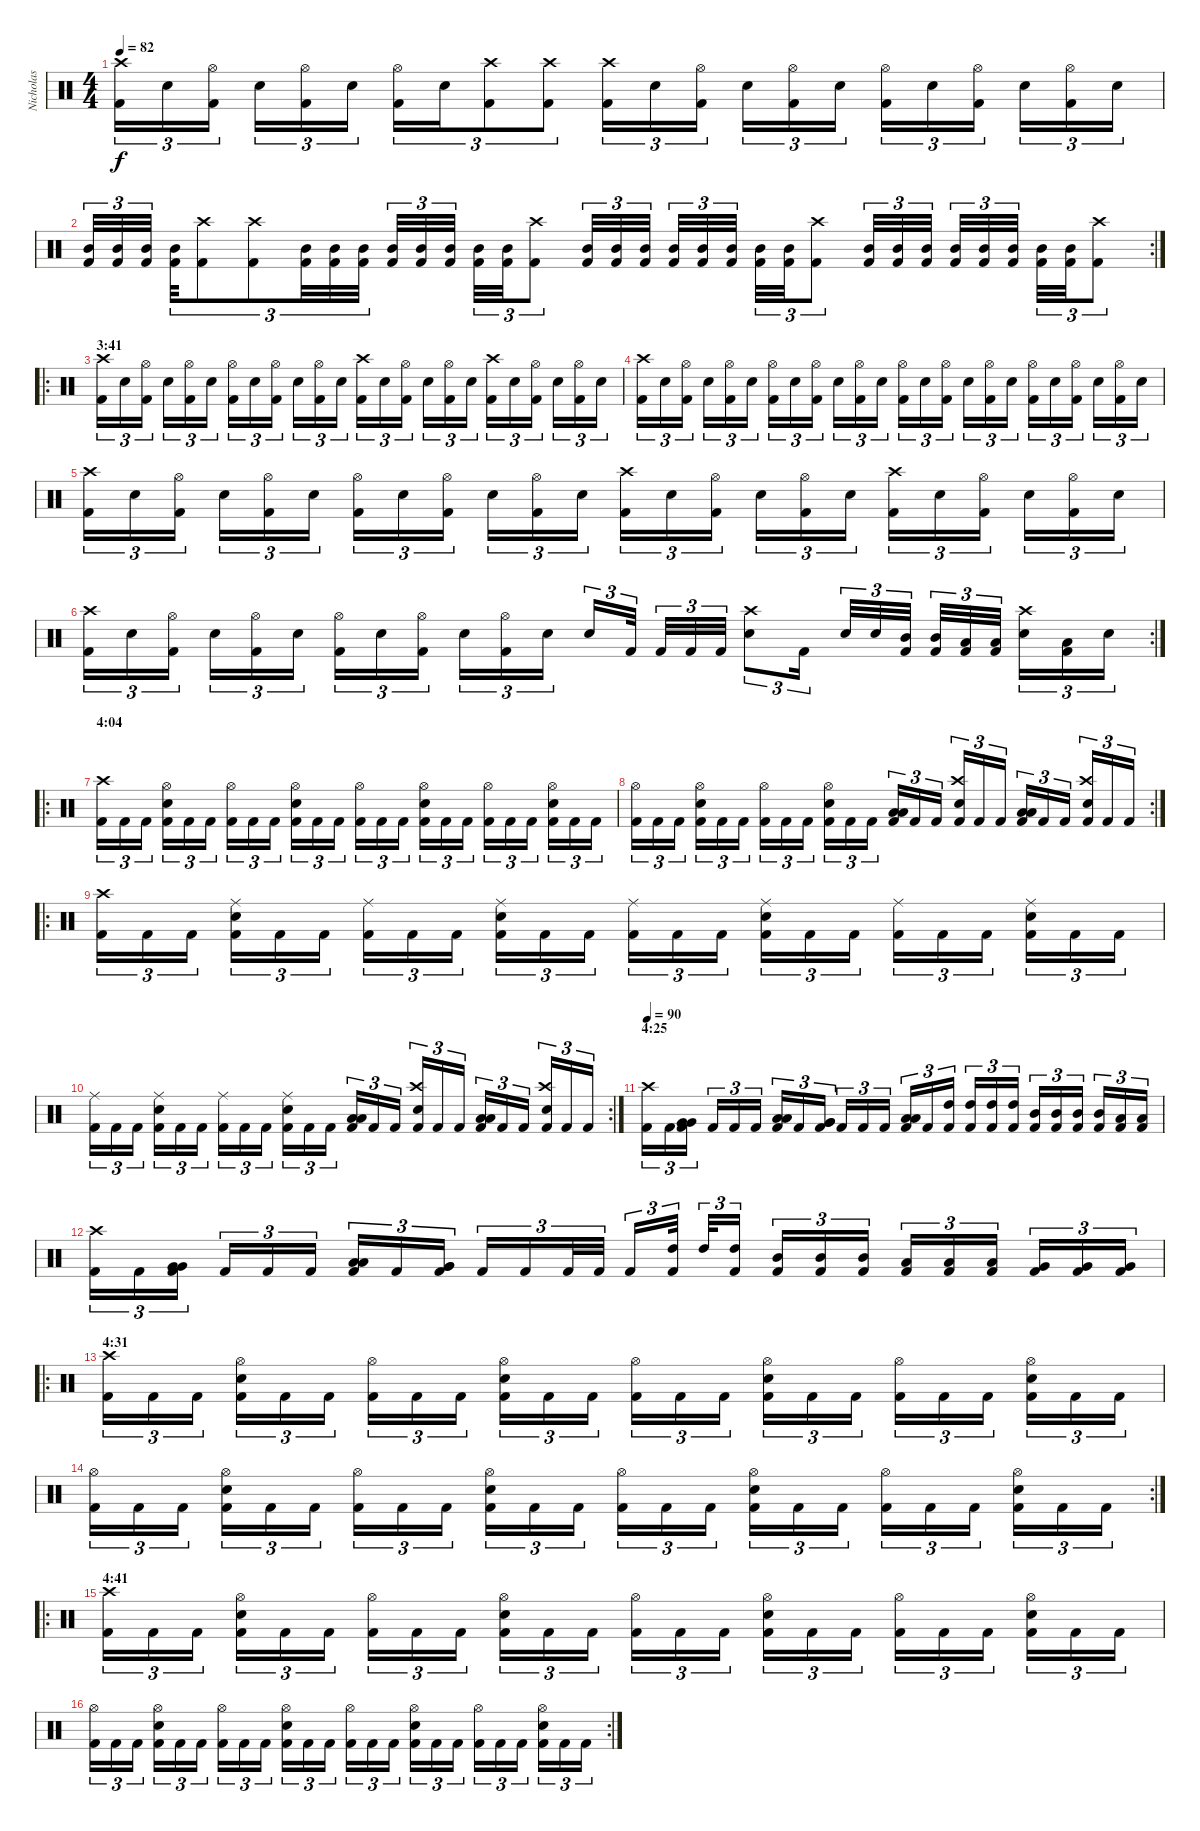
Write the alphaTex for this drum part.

\track ("Nicholas" "Nicholas") {instrument percussion}
\staff {score}
\articulation defaults
\ts (4 4)
\tempo 82
\clef neutral
\ks c
("Kick (hit) 2" "Crash high (hit)").16{tu (3 2) dy f} "Snare (hit) 2".16{tu (3 2)} ("Kick (hit) 2" "Hi-Hat (open)").16{tu (3 2)} "Snare (hit) 2".16{tu (3 2)} ("Kick (hit) 2" "Hi-Hat (open)").16{tu (3 2)} "Snare (hit) 2".16{tu (3 2)} ("Kick (hit) 2" "Hi-Hat (open)").16{tu (3 2)} "Snare (hit) 2".16{tu (3 2)} ("Kick (hit) 2" "Crash high (hit)").8{tu (3 2)} ("Kick (hit) 2" "Crash high (hit)").8{tu (3 2)} ("Kick (hit) 2" "Crash high (hit)").16{tu (3 2)} "Snare (hit) 2".16{tu (3 2)} ("Kick (hit) 2" "Hi-Hat (open)").16{tu (3 2)} "Snare (hit) 2".16{tu (3 2)} ("Kick (hit) 2" "Hi-Hat (open)").16{tu (3 2)} "Snare (hit) 2".16{tu (3 2)} ("Kick (hit) 2" "Hi-Hat (open)").16{tu (3 2)} "Snare (hit) 2".16{tu (3 2)} ("Kick (hit) 2" "Hi-Hat (open)").16{tu (3 2)} "Snare (hit) 2".16{tu (3 2)} ("Kick (hit) 2" "Hi-Hat (open)").16{tu (3 2)} "Snare (hit) 2".16{tu (3 2)} |
\rc 2
("Kick (hit) 2" "Mid Tom (hit)").32{tu (3 2)} ("Kick (hit) 2" "Mid Tom (hit)").32{tu (3 2)} ("Kick (hit) 2" "Mid Tom (hit)").32{tu (3 2)} ("Kick (hit) 2" "Mid Tom (hit)").32{tu (3 2)} ("Kick (hit) 2" "Crash high (hit)").8{tu (3 2)} ("Kick (hit) 2" "Crash high (hit)").8{tu (3 2)} ("Kick (hit) 2" "Mid Tom (hit)").32{tu (3 2)} ("Kick (hit) 2" "Mid Tom (hit)").32{tu (3 2)} ("Kick (hit) 2" "Mid Tom (hit)").32{tu (3 2)} ("Kick (hit) 2" "Mid Tom (hit)").32{tu (3 2)} ("Kick (hit) 2" "Mid Tom (hit)").32{tu (3 2)} ("Kick (hit) 2" "Mid Tom (hit)").32{tu (3 2)} ("Kick (hit) 2" "Mid Tom (hit)").32{tu (3 2)} ("Kick (hit) 2" "Mid Tom (hit)").32{tu (3 2)} ("Kick (hit) 2" "Crash high (hit)").8{tu (3 2)} ("Kick (hit) 2" "Mid Tom (hit)").32{tu (3 2)} ("Kick (hit) 2" "Mid Tom (hit)").32{tu (3 2)} ("Kick (hit) 2" "Mid Tom (hit)").32{tu (3 2)} ("Kick (hit) 2" "Mid Tom (hit)").32{tu (3 2)} ("Kick (hit) 2" "Mid Tom (hit)").32{tu (3 2)} ("Kick (hit) 2" "Mid Tom (hit)").32{tu (3 2)} ("Kick (hit) 2" "Mid Tom (hit)").32{tu (3 2)} ("Kick (hit) 2" "Mid Tom (hit)").32{tu (3 2)} ("Kick (hit) 2" "Crash high (hit)").8{tu (3 2)} ("Kick (hit) 2" "Mid Tom (hit)").32{tu (3 2)} ("Kick (hit) 2" "Mid Tom (hit)").32{tu (3 2)} ("Kick (hit) 2" "Mid Tom (hit)").32{tu (3 2)} ("Kick (hit) 2" "Mid Tom (hit)").32{tu (3 2)} ("Kick (hit) 2" "Mid Tom (hit)").32{tu (3 2)} ("Kick (hit) 2" "Mid Tom (hit)").32{tu (3 2)} ("Kick (hit) 2" "Mid Tom (hit)").32{tu (3 2)} ("Kick (hit) 2" "Mid Tom (hit)").32{tu (3 2)} ("Kick (hit) 2" "Crash high (hit)").8{tu (3 2)} |
\ro
\section ("" "3:41")
("Kick (hit) 2" "Crash high (hit)").16{tu (3 2)} "Snare (hit) 2".16{tu (3 2)} ("Kick (hit) 2" "Hi-Hat (open)").16{tu (3 2)} "Snare (hit) 2".16{tu (3 2)} ("Kick (hit) 2" "Hi-Hat (open)").16{tu (3 2)} "Snare (hit) 2".16{tu (3 2)} ("Kick (hit) 2" "Hi-Hat (open)").16{tu (3 2)} "Snare (hit) 2".16{tu (3 2)} ("Kick (hit) 2" "Hi-Hat (open)").16{tu (3 2)} "Snare (hit) 2".16{tu (3 2)} ("Kick (hit) 2" "Hi-Hat (open)").16{tu (3 2)} "Snare (hit) 2".16{tu (3 2)} ("Kick (hit) 2" "Crash high (hit)").16{tu (3 2)} "Snare (hit) 2".16{tu (3 2)} ("Kick (hit) 2" "Hi-Hat (open)").16{tu (3 2)} "Snare (hit) 2".16{tu (3 2)} ("Kick (hit) 2" "Hi-Hat (open)").16{tu (3 2)} "Snare (hit) 2".16{tu (3 2)} ("Kick (hit) 2" "Crash high (hit)").16{tu (3 2)} "Snare (hit) 2".16{tu (3 2)} ("Kick (hit) 2" "Hi-Hat (open)").16{tu (3 2)} "Snare (hit) 2".16{tu (3 2)} ("Kick (hit) 2" "Hi-Hat (open)").16{tu (3 2)} "Snare (hit) 2".16{tu (3 2)} |
("Kick (hit) 2" "Crash high (hit)").16{tu (3 2)} "Snare (hit) 2".16{tu (3 2)} ("Kick (hit) 2" "Hi-Hat (open)").16{tu (3 2)} "Snare (hit) 2".16{tu (3 2)} ("Kick (hit) 2" "Hi-Hat (open)").16{tu (3 2)} "Snare (hit) 2".16{tu (3 2)} ("Kick (hit) 2" "Hi-Hat (open)").16{tu (3 2)} "Snare (hit) 2".16{tu (3 2)} ("Kick (hit) 2" "Hi-Hat (open)").16{tu (3 2)} "Snare (hit) 2".16{tu (3 2)} ("Kick (hit) 2" "Hi-Hat (open)").16{tu (3 2)} "Snare (hit) 2".16{tu (3 2)} ("Kick (hit) 2" "Hi-Hat (open)").16{tu (3 2)} "Snare (hit) 2".16{tu (3 2)} ("Kick (hit) 2" "Hi-Hat (open)").16{tu (3 2)} "Snare (hit) 2".16{tu (3 2)} ("Kick (hit) 2" "Hi-Hat (open)").16{tu (3 2)} "Snare (hit) 2".16{tu (3 2)} ("Kick (hit) 2" "Hi-Hat (open)").16{tu (3 2)} "Snare (hit) 2".16{tu (3 2)} ("Kick (hit) 2" "Hi-Hat (open)").16{tu (3 2)} "Snare (hit) 2".16{tu (3 2)} ("Kick (hit) 2" "Hi-Hat (open)").16{tu (3 2)} "Snare (hit) 2".16{tu (3 2)} |
("Kick (hit) 2" "Crash high (hit)").16{tu (3 2)} "Snare (hit) 2".16{tu (3 2)} ("Kick (hit) 2" "Hi-Hat (open)").16{tu (3 2)} "Snare (hit) 2".16{tu (3 2)} ("Kick (hit) 2" "Hi-Hat (open)").16{tu (3 2)} "Snare (hit) 2".16{tu (3 2)} ("Kick (hit) 2" "Hi-Hat (open)").16{tu (3 2)} "Snare (hit) 2".16{tu (3 2)} ("Kick (hit) 2" "Hi-Hat (open)").16{tu (3 2)} "Snare (hit) 2".16{tu (3 2)} ("Kick (hit) 2" "Hi-Hat (open)").16{tu (3 2)} "Snare (hit) 2".16{tu (3 2)} ("Kick (hit) 2" "Crash high (hit)").16{tu (3 2)} "Snare (hit) 2".16{tu (3 2)} ("Kick (hit) 2" "Hi-Hat (open)").16{tu (3 2)} "Snare (hit) 2".16{tu (3 2)} ("Kick (hit) 2" "Hi-Hat (open)").16{tu (3 2)} "Snare (hit) 2".16{tu (3 2)} ("Kick (hit) 2" "Crash high (hit)").16{tu (3 2)} "Snare (hit) 2".16{tu (3 2)} ("Kick (hit) 2" "Hi-Hat (open)").16{tu (3 2)} "Snare (hit) 2".16{tu (3 2)} ("Kick (hit) 2" "Hi-Hat (open)").16{tu (3 2)} "Snare (hit) 2".16{tu (3 2)} |
\rc 2
("Kick (hit) 2" "Crash high (hit)").16{tu (3 2)} "Snare (hit) 2".16{tu (3 2)} ("Kick (hit) 2" "Hi-Hat (open)").16{tu (3 2)} "Snare (hit) 2".16{tu (3 2)} ("Kick (hit) 2" "Hi-Hat (open)").16{tu (3 2)} "Snare (hit) 2".16{tu (3 2)} ("Kick (hit) 2" "Hi-Hat (open)").16{tu (3 2)} "Snare (hit) 2".16{tu (3 2)} ("Kick (hit) 2" "Hi-Hat (open)").16{tu (3 2)} "Snare (hit) 2".16{tu (3 2)} ("Kick (hit) 2" "Hi-Hat (open)").16{tu (3 2)} "Snare (hit) 2".16{tu (3 2)} "Snare (hit) 2".16{tu (3 2)} "Kick (hit) 2".32{tu (3 2)} "Kick (hit) 2".32{tu (3 2)} "Kick (hit) 2".32{tu (3 2)} "Kick (hit) 2".32{tu (3 2)} ("Snare (hit) 2" "Crash high (hit)").8{tu (3 2)} "Kick (hit) 2".16{tu (3 2)} "Snare (hit) 2".32{tu (3 2)} "Snare (hit) 2".32{tu (3 2)} ("Kick (hit) 2" "Mid Tom (hit)").32{tu (3 2)} ("Kick (hit) 2" "Mid Tom (hit)").32{tu (3 2)} ("Kick (hit) 2" "Low Tom (hit)").32{tu (3 2)} ("Kick (hit) 2" "Low Tom (hit)").32{tu (3 2)} ("Snare (hit) 2" "Crash high (hit)").16{tu (3 2)} ("Kick (hit) 2" "Low Tom (hit)").16{tu (3 2)} "Snare (hit) 2".16{tu (3 2)} |
\ro
\section ("" "4:04")
("Kick (hit) 2" "Crash high (hit)").16{tu (3 2)} "Kick (hit) 2".16{tu (3 2)} "Kick (hit) 2".16{tu (3 2)} ("Kick (hit) 2" "Snare (hit) 2" "Hi-Hat (open)").16{tu (3 2)} "Kick (hit) 2".16{tu (3 2)} "Kick (hit) 2".16{tu (3 2)} ("Kick (hit) 2" "Hi-Hat (open)").16{tu (3 2)} "Kick (hit) 2".16{tu (3 2)} "Kick (hit) 2".16{tu (3 2)} ("Kick (hit) 2" "Snare (hit) 2" "Hi-Hat (open)").16{tu (3 2)} "Kick (hit) 2".16{tu (3 2)} "Kick (hit) 2".16{tu (3 2)} ("Kick (hit) 2" "Hi-Hat (open)").16{tu (3 2)} "Kick (hit) 2".16{tu (3 2)} "Kick (hit) 2".16{tu (3 2)} ("Kick (hit) 2" "Snare (hit) 2" "Hi-Hat (open)").16{tu (3 2)} "Kick (hit) 2".16{tu (3 2)} "Kick (hit) 2".16{tu (3 2)} ("Kick (hit) 2" "Hi-Hat (open)").16{tu (3 2)} "Kick (hit) 2".16{tu (3 2)} "Kick (hit) 2".16{tu (3 2)} ("Kick (hit) 2" "Snare (hit) 2" "Hi-Hat (open)").16{tu (3 2)} "Kick (hit) 2".16{tu (3 2)} "Kick (hit) 2".16{tu (3 2)} |
\rc 2
("Kick (hit) 2" "Hi-Hat (open)").16{tu (3 2)} "Kick (hit) 2".16{tu (3 2)} "Kick (hit) 2".16{tu (3 2)} ("Kick (hit) 2" "Snare (hit) 2" "Hi-Hat (open)").16{tu (3 2)} "Kick (hit) 2".16{tu (3 2)} "Kick (hit) 2".16{tu (3 2)} ("Kick (hit) 2" "Hi-Hat (open)").16{tu (3 2)} "Kick (hit) 2".16{tu (3 2)} "Kick (hit) 2".16{tu (3 2)} ("Kick (hit) 2" "Snare (hit) 2" "Hi-Hat (open)").16{tu (3 2)} "Kick (hit) 2".16{tu (3 2)} "Kick (hit) 2".16{tu (3 2)} ("Kick (hit) 2" "Low Tom (hit)" "Low Tom (hit)").16{tu (3 2)} "Kick (hit) 2".16{tu (3 2)} "Kick (hit) 2".16{tu (3 2)} ("Kick (hit) 2" "Snare (hit) 2" "Crash high (hit)").16{tu (3 2)} "Kick (hit) 2".16{tu (3 2)} "Kick (hit) 2".16{tu (3 2)} ("Kick (hit) 2" "Low Tom (hit)" "Low Tom (hit)").16{tu (3 2)} "Kick (hit) 2".16{tu (3 2)} "Kick (hit) 2".16{tu (3 2)} ("Kick (hit) 2" "Snare (hit) 2" "Crash high (hit)").16{tu (3 2)} "Kick (hit) 2".16{tu (3 2)} "Kick (hit) 2".16{tu (3 2)} |
\ro
("Kick (hit) 2" "Crash high (hit)").16{tu (3 2)} "Kick (hit) 2".16{tu (3 2)} "Kick (hit) 2".16{tu (3 2)} ("Kick (hit) 2" "Snare (hit) 2" "Ride (middle)").16{tu (3 2)} "Kick (hit) 2".16{tu (3 2)} "Kick (hit) 2".16{tu (3 2)} ("Kick (hit) 2" "Ride (middle)").16{tu (3 2)} "Kick (hit) 2".16{tu (3 2)} "Kick (hit) 2".16{tu (3 2)} ("Kick (hit) 2" "Snare (hit) 2" "Ride (middle)").16{tu (3 2)} "Kick (hit) 2".16{tu (3 2)} "Kick (hit) 2".16{tu (3 2)} ("Kick (hit) 2" "Ride (middle)").16{tu (3 2)} "Kick (hit) 2".16{tu (3 2)} "Kick (hit) 2".16{tu (3 2)} ("Kick (hit) 2" "Snare (hit) 2" "Ride (middle)").16{tu (3 2)} "Kick (hit) 2".16{tu (3 2)} "Kick (hit) 2".16{tu (3 2)} ("Kick (hit) 2" "Ride (middle)").16{tu (3 2)} "Kick (hit) 2".16{tu (3 2)} "Kick (hit) 2".16{tu (3 2)} ("Kick (hit) 2" "Snare (hit) 2" "Ride (middle)").16{tu (3 2)} "Kick (hit) 2".16{tu (3 2)} "Kick (hit) 2".16{tu (3 2)} |
\rc 2
("Kick (hit) 2" "Ride (middle)").16{tu (3 2)} "Kick (hit) 2".16{tu (3 2)} "Kick (hit) 2".16{tu (3 2)} ("Kick (hit) 2" "Snare (hit) 2" "Ride (middle)").16{tu (3 2)} "Kick (hit) 2".16{tu (3 2)} "Kick (hit) 2".16{tu (3 2)} ("Kick (hit) 2" "Ride (middle)").16{tu (3 2)} "Kick (hit) 2".16{tu (3 2)} "Kick (hit) 2".16{tu (3 2)} ("Kick (hit) 2" "Snare (hit) 2" "Ride (middle)").16{tu (3 2)} "Kick (hit) 2".16{tu (3 2)} "Kick (hit) 2".16{tu (3 2)} ("Kick (hit) 2" "Low Tom (hit)" "Low Tom (hit)").16{tu (3 2)} "Kick (hit) 2".16{tu (3 2)} "Kick (hit) 2".16{tu (3 2)} ("Kick (hit) 2" "Snare (hit) 2" "Crash high (hit)").16{tu (3 2)} "Kick (hit) 2".16{tu (3 2)} "Kick (hit) 2".16{tu (3 2)} ("Kick (hit) 2" "Low Tom (hit)" "Low Tom (hit)").16{tu (3 2)} "Kick (hit) 2".16{tu (3 2)} "Kick (hit) 2".16{tu (3 2)} ("Kick (hit) 2" "Snare (hit) 2" "Crash high (hit)").16{tu (3 2)} "Kick (hit) 2".16{tu (3 2)} "Kick (hit) 2".16{tu (3 2)} |
\section ("" "4:25")
\tempo 90
("Kick (hit) 2" "Crash high (hit)").16{tu (3 2)} "Kick (hit) 2".16{tu (3 2)} ("Kick (hit) 2" "Very Low Tom (hit)" "Very Low Tom (hit)").16{tu (3 2)} "Kick (hit) 2".16{tu (3 2)} "Kick (hit) 2".16{tu (3 2)} "Kick (hit) 2".16{tu (3 2)} ("Kick (hit) 2" "Low Tom (hit)" "Low Tom (hit)").16{tu (3 2)} "Kick (hit) 2".16{tu (3 2)} ("Kick (hit) 2" "Very Low Tom (hit)" "Very Low Tom (hit)").16{tu (3 2)} "Kick (hit) 2".16{tu (3 2)} "Kick (hit) 2".16{tu (3 2)} "Kick (hit) 2".16{tu (3 2)} ("Kick (hit) 2" "Low Tom (hit)" "Low Tom (hit)").16{tu (3 2)} "Kick (hit) 2".16{tu (3 2)} ("Kick (hit) 2" "High Tom (hit)").16{tu (3 2)} ("Kick (hit) 2" "High Tom (hit)").16{tu (3 2)} ("Kick (hit) 2" "High Tom (hit)").16{tu (3 2)} ("Kick (hit) 2" "High Tom (hit)").16{tu (3 2)} ("Kick (hit) 2" "Mid Tom (hit)").16{tu (3 2)} ("Kick (hit) 2" "Mid Tom (hit)").16{tu (3 2)} ("Kick (hit) 2" "Mid Tom (hit)").16{tu (3 2)} ("Kick (hit) 2" "Mid Tom (hit)").16{tu (3 2)} ("Kick (hit) 2" "Low Tom (hit)").16{tu (3 2)} ("Kick (hit) 2" "Low Tom (hit)").16{tu (3 2)} |
("Kick (hit) 2" "Crash high (hit)").16{tu (3 2)} "Kick (hit) 2".16{tu (3 2)} ("Kick (hit) 2" "Very Low Tom (hit)" "Very Low Tom (hit)").16{tu (3 2)} "Kick (hit) 2".16{tu (3 2)} "Kick (hit) 2".16{tu (3 2)} "Kick (hit) 2".16{tu (3 2)} ("Kick (hit) 2" "Low Tom (hit)" "Low Tom (hit)").16{tu (3 2)} "Kick (hit) 2".16{tu (3 2)} ("Kick (hit) 2" "Very Low Tom (hit)" "Very Low Tom (hit)").16{tu (3 2)} "Kick (hit) 2".16{tu (3 2)} "Kick (hit) 2".16{tu (3 2)} "Kick (hit) 2".32{tu (3 2)} "Kick (hit) 2".32{tu (3 2)} "Kick (hit) 2".16{tu (3 2)} ("Kick (hit) 2" "High Tom (hit)").32{tu (3 2)} "High Tom (hit)".32{tu (3 2)} ("Kick (hit) 2" "High Tom (hit)").16{tu (3 2)} ("Kick (hit) 2" "Mid Tom (hit)").16{tu (3 2)} ("Kick (hit) 2" "Mid Tom (hit)").16{tu (3 2)} ("Kick (hit) 2" "Mid Tom (hit)").16{tu (3 2)} ("Kick (hit) 2" "Low Tom (hit)").16{tu (3 2)} ("Kick (hit) 2" "Low Tom (hit)").16{tu (3 2)} ("Kick (hit) 2" "Low Tom (hit)").16{tu (3 2)} ("Kick (hit) 2" "Very Low Tom (hit)").16{tu (3 2)} ("Kick (hit) 2" "Very Low Tom (hit)").16{tu (3 2)} ("Kick (hit) 2" "Very Low Tom (hit)").16{tu (3 2)} |
\ro
\section ("" "4:31")
("Kick (hit) 2" "Crash high (hit)").16{tu (3 2)} "Kick (hit) 2".16{tu (3 2)} "Kick (hit) 2".16{tu (3 2)} ("Kick (hit) 2" "Snare (hit) 2" "Hi-Hat (open)").16{tu (3 2)} "Kick (hit) 2".16{tu (3 2)} "Kick (hit) 2".16{tu (3 2)} ("Kick (hit) 2" "Hi-Hat (open)").16{tu (3 2)} "Kick (hit) 2".16{tu (3 2)} "Kick (hit) 2".16{tu (3 2)} ("Kick (hit) 2" "Snare (hit) 2" "Hi-Hat (open)").16{tu (3 2)} "Kick (hit) 2".16{tu (3 2)} "Kick (hit) 2".16{tu (3 2)} ("Kick (hit) 2" "Hi-Hat (open)").16{tu (3 2)} "Kick (hit) 2".16{tu (3 2)} "Kick (hit) 2".16{tu (3 2)} ("Kick (hit) 2" "Snare (hit) 2" "Hi-Hat (open)").16{tu (3 2)} "Kick (hit) 2".16{tu (3 2)} "Kick (hit) 2".16{tu (3 2)} ("Kick (hit) 2" "Hi-Hat (open)").16{tu (3 2)} "Kick (hit) 2".16{tu (3 2)} "Kick (hit) 2".16{tu (3 2)} ("Kick (hit) 2" "Snare (hit) 2" "Hi-Hat (open)").16{tu (3 2)} "Kick (hit) 2".16{tu (3 2)} "Kick (hit) 2".16{tu (3 2)} |
\rc 2
("Kick (hit) 2" "Hi-Hat (open)").16{tu (3 2)} "Kick (hit) 2".16{tu (3 2)} "Kick (hit) 2".16{tu (3 2)} ("Kick (hit) 2" "Snare (hit) 2" "Hi-Hat (open)").16{tu (3 2)} "Kick (hit) 2".16{tu (3 2)} "Kick (hit) 2".16{tu (3 2)} ("Kick (hit) 2" "Hi-Hat (open)").16{tu (3 2)} "Kick (hit) 2".16{tu (3 2)} "Kick (hit) 2".16{tu (3 2)} ("Kick (hit) 2" "Snare (hit) 2" "Hi-Hat (open)").16{tu (3 2)} "Kick (hit) 2".16{tu (3 2)} "Kick (hit) 2".16{tu (3 2)} ("Kick (hit) 2" "Hi-Hat (open)").16{tu (3 2)} "Kick (hit) 2".16{tu (3 2)} "Kick (hit) 2".16{tu (3 2)} ("Kick (hit) 2" "Snare (hit) 2" "Hi-Hat (open)").16{tu (3 2)} "Kick (hit) 2".16{tu (3 2)} "Kick (hit) 2".16{tu (3 2)} ("Kick (hit) 2" "Hi-Hat (open)").16{tu (3 2)} "Kick (hit) 2".16{tu (3 2)} "Kick (hit) 2".16{tu (3 2)} ("Kick (hit) 2" "Snare (hit) 2" "Hi-Hat (open)").16{tu (3 2)} "Kick (hit) 2".16{tu (3 2)} "Kick (hit) 2".16{tu (3 2)} |
\ro
\section ("" "4:41")
("Kick (hit) 2" "Crash high (hit)").16{tu (3 2)} "Kick (hit) 2".16{tu (3 2)} "Kick (hit) 2".16{tu (3 2)} ("Kick (hit) 2" "Snare (hit) 2" "Hi-Hat (open)").16{tu (3 2)} "Kick (hit) 2".16{tu (3 2)} "Kick (hit) 2".16{tu (3 2)} ("Kick (hit) 2" "Hi-Hat (open)").16{tu (3 2)} "Kick (hit) 2".16{tu (3 2)} "Kick (hit) 2".16{tu (3 2)} ("Kick (hit) 2" "Snare (hit) 2" "Hi-Hat (open)").16{tu (3 2)} "Kick (hit) 2".16{tu (3 2)} "Kick (hit) 2".16{tu (3 2)} ("Kick (hit) 2" "Hi-Hat (open)").16{tu (3 2)} "Kick (hit) 2".16{tu (3 2)} "Kick (hit) 2".16{tu (3 2)} ("Kick (hit) 2" "Snare (hit) 2" "Hi-Hat (open)").16{tu (3 2)} "Kick (hit) 2".16{tu (3 2)} "Kick (hit) 2".16{tu (3 2)} ("Kick (hit) 2" "Hi-Hat (open)").16{tu (3 2)} "Kick (hit) 2".16{tu (3 2)} "Kick (hit) 2".16{tu (3 2)} ("Kick (hit) 2" "Snare (hit) 2" "Hi-Hat (open)").16{tu (3 2)} "Kick (hit) 2".16{tu (3 2)} "Kick (hit) 2".16{tu (3 2)} |
\rc 2
("Kick (hit) 2" "Hi-Hat (open)").16{tu (3 2)} "Kick (hit) 2".16{tu (3 2)} "Kick (hit) 2".16{tu (3 2)} ("Kick (hit) 2" "Snare (hit) 2" "Hi-Hat (open)").16{tu (3 2)} "Kick (hit) 2".16{tu (3 2)} "Kick (hit) 2".16{tu (3 2)} ("Kick (hit) 2" "Hi-Hat (open)").16{tu (3 2)} "Kick (hit) 2".16{tu (3 2)} "Kick (hit) 2".16{tu (3 2)} ("Kick (hit) 2" "Snare (hit) 2" "Hi-Hat (open)").16{tu (3 2)} "Kick (hit) 2".16{tu (3 2)} "Kick (hit) 2".16{tu (3 2)} ("Kick (hit) 2" "Hi-Hat (open)").16{tu (3 2)} "Kick (hit) 2".16{tu (3 2)} "Kick (hit) 2".16{tu (3 2)} ("Kick (hit) 2" "Snare (hit) 2" "Hi-Hat (open)").16{tu (3 2)} "Kick (hit) 2".16{tu (3 2)} "Kick (hit) 2".16{tu (3 2)} ("Kick (hit) 2" "Hi-Hat (open)").16{tu (3 2)} "Kick (hit) 2".16{tu (3 2)} "Kick (hit) 2".16{tu (3 2)} ("Kick (hit) 2" "Snare (hit) 2" "Hi-Hat (open)").16{tu (3 2)} "Kick (hit) 2".16{tu (3 2)} "Kick (hit) 2".16{tu (3 2)}
